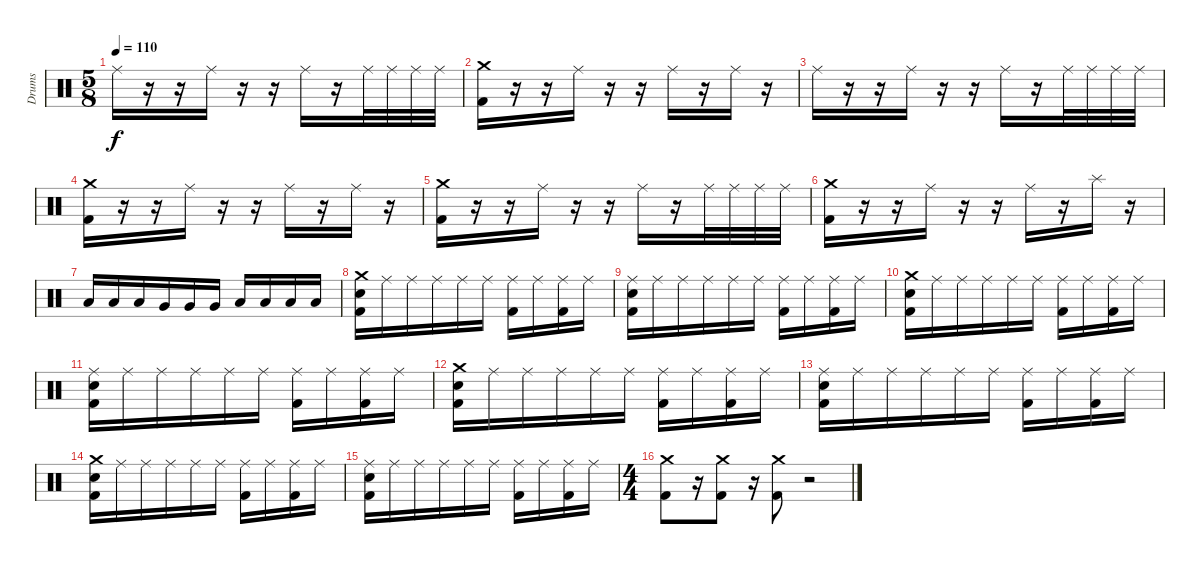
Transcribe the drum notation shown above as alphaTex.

\track ("Drums" "Drums") {instrument percussion}
\staff {score}
\articulation defaults
\ts (5 8)
\tempo 110
\clef neutral
\ks c "Ride (middle)".16{dy f}
r.16 r.16 "Ride (middle)".16 r.16 r.16 "Ride (middle)".16 r.16 "Ride (middle)".32 "Ride (middle)".32 "Ride (middle)".32 "Ride (middle)".32 |
("Crash medium (hit)" "Kick (hit) 2").16 r.16 r.16 "Ride (middle)".16 r.16 r.16 "Ride (middle)".16 r.16 "Ride (middle)".16 r.16 |
"Ride (middle)".16 r.16 r.16 "Ride (middle)".16 r.16 r.16 "Ride (middle)".16 r.16 "Ride (middle)".32 "Ride (middle)".32 "Ride (middle)".32 "Ride (middle)".32 |
("Crash medium (hit)" "Kick (hit) 2").16 r.16 r.16 "Ride (middle)".16 r.16 r.16 "Ride (middle)".16 r.16 "Ride (middle)".16 r.16 |
("Crash medium (hit)" "Kick (hit) 2").16 r.16 r.16 "Ride (middle)".16 r.16 r.16 "Ride (middle)".16 r.16 "Ride (middle)".32 "Ride (middle)".32 "Ride (middle)".32 "Ride (middle)".32 |
("Crash medium (hit)" "Kick (hit) 2").16 r.16 r.16 "Ride (middle)".16 r.16 r.16 "Ride (middle)".16 r.16 "Splash (hit)".16 r.16 |
"Low Tom (hit)".16 "Low Tom (hit)".16 "Low Tom (hit)".16 "Very Low Tom (hit)".16 "Very Low Tom (hit)".16 "Very Low Tom (hit)".16 "Low Floor Tom (hit)".16 "Low Floor Tom (hit)".16 "Low Floor Tom (hit)".16 "Low Floor Tom (hit)".16 |
("Crash medium (hit)" "Electric Snare (hit)" "Kick (hit) 2").16 "Ride (middle)".16 "Ride (middle)".16 "Ride (middle)".16 "Ride (middle)".16 "Ride (middle)".16 ("Ride (middle)" "Kick (hit) 2").16 "Ride (middle)".16 ("Ride (middle)" "Kick (hit) 2").16 "Ride (middle)".16 |
("Ride (middle)" "Electric Snare (hit)" "Kick (hit) 2").16 "Ride (middle)".16 "Ride (middle)".16 "Ride (middle)".16 "Ride (middle)".16 "Ride (middle)".16 ("Ride (middle)" "Kick (hit) 2").16 "Ride (middle)".16 ("Ride (middle)" "Kick (hit) 2").16 "Ride (middle)".16 |
("Crash medium (hit)" "Electric Snare (hit)" "Kick (hit) 2").16 "Ride (middle)".16 "Ride (middle)".16 "Ride (middle)".16 "Ride (middle)".16 "Ride (middle)".16 ("Ride (middle)" "Kick (hit) 2").16 "Ride (middle)".16 ("Ride (middle)" "Kick (hit) 2").16 "Ride (middle)".16 |
("Ride (middle)" "Electric Snare (hit)" "Kick (hit) 2").16 "Ride (middle)".16 "Ride (middle)".16 "Ride (middle)".16 "Ride (middle)".16 "Ride (middle)".16 ("Ride (middle)" "Kick (hit) 2").16 "Ride (middle)".16 ("Ride (middle)" "Kick (hit) 2").16 "Ride (middle)".16 |
("Crash medium (hit)" "Electric Snare (hit)" "Kick (hit) 2").16 "Ride (middle)".16 "Ride (middle)".16 "Ride (middle)".16 "Ride (middle)".16 "Ride (middle)".16 ("Ride (middle)" "Kick (hit) 2").16 "Ride (middle)".16 ("Ride (middle)" "Kick (hit) 2").16 "Ride (middle)".16 |
("Ride (middle)" "Electric Snare (hit)" "Kick (hit) 2").16 "Ride (middle)".16 "Ride (middle)".16 "Ride (middle)".16 "Ride (middle)".16 "Ride (middle)".16 ("Ride (middle)" "Kick (hit) 2").16 "Ride (middle)".16 ("Ride (middle)" "Kick (hit) 2").16 "Ride (middle)".16 |
("Crash medium (hit)" "Electric Snare (hit)" "Kick (hit) 2").16 "Ride (middle)".16 "Ride (middle)".16 "Ride (middle)".16 "Ride (middle)".16 "Ride (middle)".16 ("Ride (middle)" "Kick (hit) 2").16 "Ride (middle)".16 ("Ride (middle)" "Kick (hit) 2").16 "Ride (middle)".16 |
("Ride (middle)" "Electric Snare (hit)" "Kick (hit) 2").16 "Ride (middle)".16 "Ride (middle)".16 "Ride (middle)".16 "Ride (middle)".16 "Ride (middle)".16 ("Ride (middle)" "Kick (hit) 2").16 "Ride (middle)".16 ("Ride (middle)" "Kick (hit) 2").16 "Ride (middle)".16 |
\ts (4 4)
("Crash medium (hit)" "Kick (hit) 2").8 r.16 ("Crash medium (hit)" "Kick (hit) 2").8 r.16 ("Crash medium (hit)" "Kick (hit) 2").8 r.2
